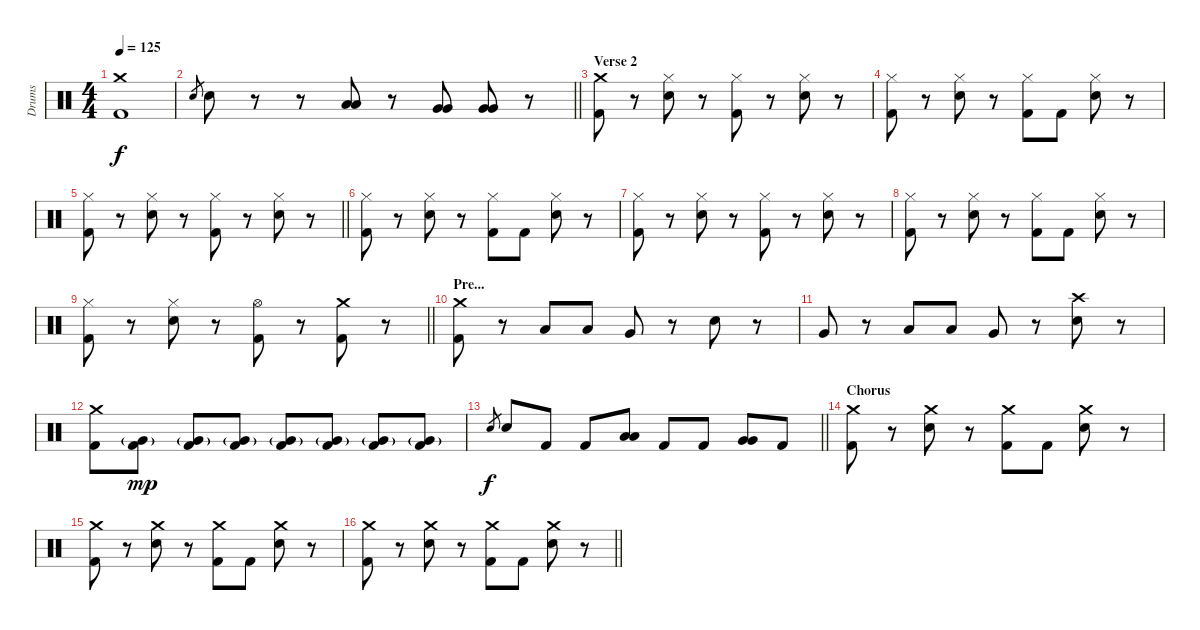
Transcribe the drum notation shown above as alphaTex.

\track ("Drums" "Drums") {instrument percussion}
\staff {score}
\articulation defaults
\ts (4 4)
\tempo 125
\clef neutral
\ks c
("Crash medium (hit)" "Kick (hit) 2").1{dy f} |
\barLineRight lightlight "Electric Snare (hit)".8{gr} "Electric Snare (hit)".8
r.8 r.8 ("Low Tom (hit)" "Low Tom (hit)").8 r.8 ("Very Low Tom (hit)" "Very Low Tom (hit)").8 ("Very Low Tom (hit)" "Very Low Tom (hit)").8 r.8 |
\section ("" "Verse 2")
("Crash medium (hit)" "Kick (hit) 2").8 r.8 ("Hi-Hat (closed)" "Electric Snare (hit)").8 r.8 ("Hi-Hat (closed)" "Kick (hit) 2").8 r.8 ("Hi-Hat (closed)" "Electric Snare (hit)").8 r.8 |
("Hi-Hat (closed)" "Kick (hit) 2").8 r.8 ("Hi-Hat (closed)" "Electric Snare (hit)").8 r.8 ("Hi-Hat (closed)" "Kick (hit) 2").8 "Kick (hit) 2".8 ("Hi-Hat (closed)" "Electric Snare (hit)").8 r.8 |
\barLineRight lightlight
("Hi-Hat (closed)" "Kick (hit) 2").8 r.8 ("Hi-Hat (closed)" "Electric Snare (hit)").8 r.8 ("Hi-Hat (closed)" "Kick (hit) 2").8 r.8 ("Hi-Hat (closed)" "Electric Snare (hit)").8 r.8 |
("Hi-Hat (closed)" "Kick (hit) 2").8 r.8 ("Hi-Hat (closed)" "Electric Snare (hit)").8 r.8 ("Hi-Hat (closed)" "Kick (hit) 2").8 "Kick (hit) 2".8 ("Hi-Hat (closed)" "Electric Snare (hit)").8 r.8 |
("Hi-Hat (closed)" "Kick (hit) 2").8 r.8 ("Hi-Hat (closed)" "Electric Snare (hit)").8 r.8 ("Hi-Hat (closed)" "Kick (hit) 2").8 r.8 ("Hi-Hat (closed)" "Electric Snare (hit)").8 r.8 |
("Hi-Hat (closed)" "Kick (hit) 2").8 r.8 ("Hi-Hat (closed)" "Electric Snare (hit)").8 r.8 ("Hi-Hat (closed)" "Kick (hit) 2").8 "Kick (hit) 2".8 ("Hi-Hat (closed)" "Electric Snare (hit)").8 r.8 |
\barLineRight lightlight
("Hi-Hat (closed)" "Kick (hit) 2").8 r.8 ("Hi-Hat (closed)" "Electric Snare (hit)").8 r.8 ("Hi-Hat (open)" "Kick (hit) 2").8 r.8 ("Crash medium (hit)" "Kick (hit) 2").8 r.8 |
\section ("" "Pre...")
("Crash medium (hit)" "Kick (hit) 2").8 r.8 "Low Tom (hit)".8 "Low Tom (hit)".8 "Very Low Tom (hit)".8 r.8 "Electric Snare (hit)".8 r.8 |
"Very Low Tom (hit)".8 r.8 "Low Tom (hit)".8 "Low Tom (hit)".8 "Very Low Tom (hit)".8 r.8 ("Crash high (hit)" "Electric Snare (hit)").8 r.8 |
("Crash medium (hit)" "Kick (hit) 2").8 ("Kick (hit) 2" "Very Low Tom (hit)"{g}).8{dy mp} ("Kick (hit) 2" "Very Low Tom (hit)"{g}).8 ("Kick (hit) 2" "Very Low Tom (hit)"{g}).8 ("Kick (hit) 2" "Very Low Tom (hit)"{g}).8 ("Kick (hit) 2" "Very Low Tom (hit)"{g}).8 ("Kick (hit) 2" "Very Low Tom (hit)"{g}).8 ("Kick (hit) 2" "Very Low Tom (hit)"{g}).8 |
\barLineRight lightlight "Electric Snare (hit)".8{gr dy f} "Electric Snare (hit)".8 "Kick (hit) 2".8 "Kick (hit) 2".8
("Low Tom (hit)" "Low Tom (hit)").8 "Kick (hit) 2".8 "Kick (hit) 2".8 ("Very Low Tom (hit)" "Very Low Tom (hit)").8 "Kick (hit) 2".8 |
\section ("" "Chorus")
("Crash medium (hit)" "Kick (hit) 2").8 r.8 ("Crash medium (hit)" "Electric Snare (hit)").8 r.8 ("Crash medium (hit)" "Kick (hit) 2").8 "Kick (hit) 2".8 ("Crash medium (hit)" "Electric Snare (hit)").8 r.8 |
("Crash medium (hit)" "Kick (hit) 2").8 r.8 ("Crash medium (hit)" "Electric Snare (hit)").8 r.8 ("Crash medium (hit)" "Kick (hit) 2").8 "Kick (hit) 2".8 ("Crash medium (hit)" "Electric Snare (hit)").8 r.8 |
\barLineRight lightlight
("Crash medium (hit)" "Kick (hit) 2").8 r.8 ("Crash medium (hit)" "Electric Snare (hit)").8 r.8 ("Crash medium (hit)" "Kick (hit) 2").8 "Kick (hit) 2".8 ("Crash medium (hit)" "Electric Snare (hit)").8 r.8
